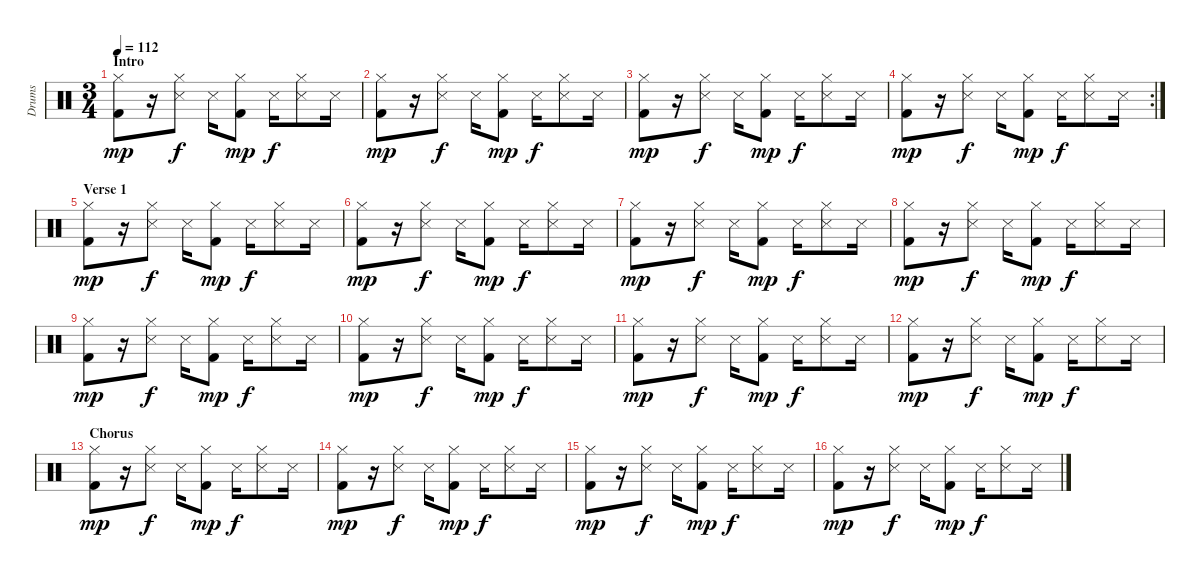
\track ("Drums" "Drums") {instrument percussion}
\staff {score}
\articulation defaults
\ts (3 4)
\section ("" "Intro")
\tempo 112
\clef neutral
\ks c
("Hi-Hat (closed)" "Kick (hit) 2").8{dy mp} r.16 ("Hi-Hat (closed)" "Snare (side stick) 3").8{dy f} "Snare (side stick) 3".16 ("Hi-Hat (closed)" "Kick (hit) 2").8{dy mp} "Snare (side stick) 3".16{dy f} ("Hi-Hat (closed)" "Snare (side stick) 3").8 "Snare (side stick) 3".16 |
("Hi-Hat (closed)" "Kick (hit) 2").8{dy mp} r.16 ("Hi-Hat (closed)" "Snare (side stick) 3").8{dy f} "Snare (side stick) 3".16 ("Hi-Hat (closed)" "Kick (hit) 2").8{dy mp} "Snare (side stick) 3".16{dy f} ("Hi-Hat (closed)" "Snare (side stick) 3").8 "Snare (side stick) 3".16 |
("Hi-Hat (closed)" "Kick (hit) 2").8{dy mp} r.16 ("Hi-Hat (closed)" "Snare (side stick) 3").8{dy f} "Snare (side stick) 3".16 ("Hi-Hat (closed)" "Kick (hit) 2").8{dy mp} "Snare (side stick) 3".16{dy f} ("Hi-Hat (closed)" "Snare (side stick) 3").8 "Snare (side stick) 3".16 |
\rc 2
("Hi-Hat (closed)" "Kick (hit) 2").8{dy mp} r.16 ("Hi-Hat (closed)" "Snare (side stick) 3").8{dy f} "Snare (side stick) 3".16 ("Hi-Hat (closed)" "Kick (hit) 2").8{dy mp} "Snare (side stick) 3".16{dy f} ("Hi-Hat (closed)" "Snare (side stick) 3").8 "Snare (side stick) 3".16 |
\section ("" "Verse 1")
("Hi-Hat (closed)" "Kick (hit) 2").8{dy mp} r.16 ("Hi-Hat (closed)" "Snare (side stick) 3").8{dy f} "Snare (side stick) 3".16 ("Hi-Hat (closed)" "Kick (hit) 2").8{dy mp} "Snare (side stick) 3".16{dy f} ("Hi-Hat (closed)" "Snare (side stick) 3").8 "Snare (side stick) 3".16 |
("Hi-Hat (closed)" "Kick (hit) 2").8{dy mp} r.16 ("Hi-Hat (closed)" "Snare (side stick) 3").8{dy f} "Snare (side stick) 3".16 ("Hi-Hat (closed)" "Kick (hit) 2").8{dy mp} "Snare (side stick) 3".16{dy f} ("Hi-Hat (closed)" "Snare (side stick) 3").8 "Snare (side stick) 3".16 |
("Hi-Hat (closed)" "Kick (hit) 2").8{dy mp} r.16 ("Hi-Hat (closed)" "Snare (side stick) 3").8{dy f} "Snare (side stick) 3".16 ("Hi-Hat (closed)" "Kick (hit) 2").8{dy mp} "Snare (side stick) 3".16{dy f} ("Hi-Hat (closed)" "Snare (side stick) 3").8 "Snare (side stick) 3".16 |
("Hi-Hat (closed)" "Kick (hit) 2").8{dy mp} r.16 ("Hi-Hat (closed)" "Snare (side stick) 3").8{dy f} "Snare (side stick) 3".16 ("Hi-Hat (closed)" "Kick (hit) 2").8{dy mp} "Snare (side stick) 3".16{dy f} ("Hi-Hat (closed)" "Snare (side stick) 3").8 "Snare (side stick) 3".16 |
("Hi-Hat (closed)" "Kick (hit) 2").8{dy mp} r.16 ("Hi-Hat (closed)" "Snare (side stick) 3").8{dy f} "Snare (side stick) 3".16 ("Hi-Hat (closed)" "Kick (hit) 2").8{dy mp} "Snare (side stick) 3".16{dy f} ("Hi-Hat (closed)" "Snare (side stick) 3").8 "Snare (side stick) 3".16 |
("Hi-Hat (closed)" "Kick (hit) 2").8{dy mp} r.16 ("Hi-Hat (closed)" "Snare (side stick) 3").8{dy f} "Snare (side stick) 3".16 ("Hi-Hat (closed)" "Kick (hit) 2").8{dy mp} "Snare (side stick) 3".16{dy f} ("Hi-Hat (closed)" "Snare (side stick) 3").8 "Snare (side stick) 3".16 |
("Hi-Hat (closed)" "Kick (hit) 2").8{dy mp} r.16 ("Hi-Hat (closed)" "Snare (side stick) 3").8{dy f} "Snare (side stick) 3".16 ("Hi-Hat (closed)" "Kick (hit) 2").8{dy mp} "Snare (side stick) 3".16{dy f} ("Hi-Hat (closed)" "Snare (side stick) 3").8 "Snare (side stick) 3".16 |
("Hi-Hat (closed)" "Kick (hit) 2").8{dy mp} r.16 ("Hi-Hat (closed)" "Snare (side stick) 3").8{dy f} "Snare (side stick) 3".16 ("Hi-Hat (closed)" "Kick (hit) 2").8{dy mp} "Snare (side stick) 3".16{dy f} ("Hi-Hat (closed)" "Snare (side stick) 3").8 "Snare (side stick) 3".16 |
\section ("" "Chorus")
("Hi-Hat (closed)" "Kick (hit) 2").8{dy mp} r.16 ("Hi-Hat (closed)" "Snare (side stick) 3").8{dy f} "Snare (side stick) 3".16 ("Hi-Hat (closed)" "Kick (hit) 2").8{dy mp} "Snare (side stick) 3".16{dy f} ("Hi-Hat (closed)" "Snare (side stick) 3").8 "Snare (side stick) 3".16 |
("Hi-Hat (closed)" "Kick (hit) 2").8{dy mp} r.16 ("Hi-Hat (closed)" "Snare (side stick) 3").8{dy f} "Snare (side stick) 3".16 ("Hi-Hat (closed)" "Kick (hit) 2").8{dy mp} "Snare (side stick) 3".16{dy f} ("Hi-Hat (closed)" "Snare (side stick) 3").8 "Snare (side stick) 3".16 |
("Hi-Hat (closed)" "Kick (hit) 2").8{dy mp} r.16 ("Hi-Hat (closed)" "Snare (side stick) 3").8{dy f} "Snare (side stick) 3".16 ("Hi-Hat (closed)" "Kick (hit) 2").8{dy mp} "Snare (side stick) 3".16{dy f} ("Hi-Hat (closed)" "Snare (side stick) 3").8 "Snare (side stick) 3".16 |
("Hi-Hat (closed)" "Kick (hit) 2").8{dy mp} r.16 ("Hi-Hat (closed)" "Snare (side stick) 3").8{dy f} "Snare (side stick) 3".16 ("Hi-Hat (closed)" "Kick (hit) 2").8{dy mp} "Snare (side stick) 3".16{dy f} ("Hi-Hat (closed)" "Snare (side stick) 3").8 "Snare (side stick) 3".16
